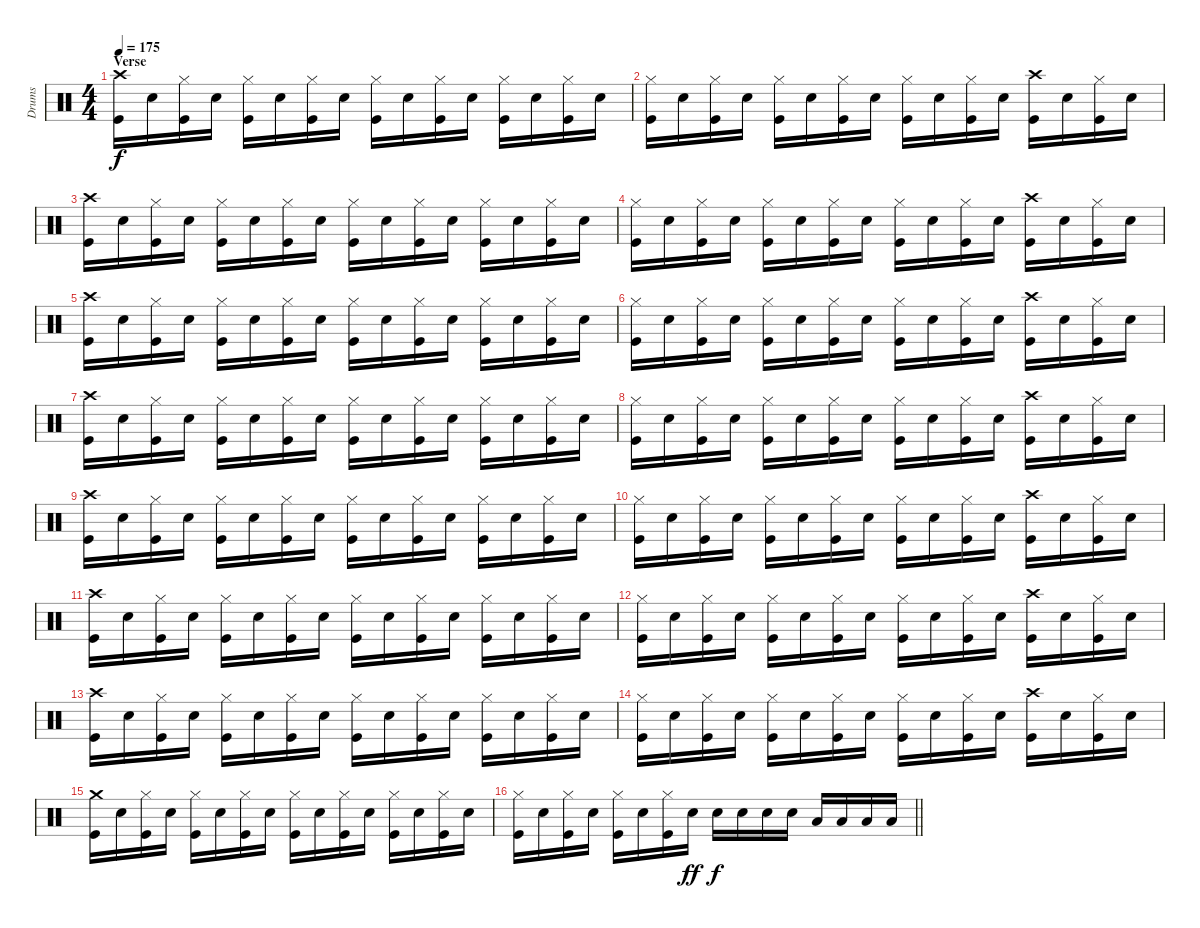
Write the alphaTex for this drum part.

\track ("Drums" "Drums") {instrument percussion}
\staff {score}
\articulation defaults
\ts (4 4)
\section ("" "Verse")
\tempo 175
\clef neutral
\ks c
("Crash high (hit)" "Kick (hit)").16{dy f} "Snare (hit) 2".16 ("Hi-Hat (closed)" "Kick (hit)").16 "Snare (hit) 2".16 ("Hi-Hat (closed)" "Kick (hit)").16 "Snare (hit) 2".16 ("Hi-Hat (closed)" "Kick (hit)").16 "Snare (hit) 2".16 ("Hi-Hat (closed)" "Kick (hit)").16 "Snare (hit) 2".16 ("Hi-Hat (closed)" "Kick (hit)").16 "Snare (hit) 2".16 ("Hi-Hat (closed)" "Kick (hit)").16 "Snare (hit) 2".16 ("Hi-Hat (closed)" "Kick (hit)").16 "Snare (hit) 2".16 |
("Hi-Hat (closed)" "Kick (hit)").16 "Snare (hit) 2".16 ("Hi-Hat (closed)" "Kick (hit)").16 "Snare (hit) 2".16 ("Hi-Hat (closed)" "Kick (hit)").16 "Snare (hit) 2".16 ("Hi-Hat (closed)" "Kick (hit)").16 "Snare (hit) 2".16 ("Hi-Hat (closed)" "Kick (hit)").16 "Snare (hit) 2".16 ("Hi-Hat (closed)" "Kick (hit)").16 "Snare (hit) 2".16 ("Crash high (hit)" "Kick (hit)").16 "Snare (hit) 2".16 ("Hi-Hat (closed)" "Kick (hit)").16 "Snare (hit) 2".16 |
("Crash high (hit)" "Kick (hit)").16 "Snare (hit) 2".16 ("Hi-Hat (closed)" "Kick (hit)").16 "Snare (hit) 2".16 ("Hi-Hat (closed)" "Kick (hit)").16 "Snare (hit) 2".16 ("Hi-Hat (closed)" "Kick (hit)").16 "Snare (hit) 2".16 ("Hi-Hat (closed)" "Kick (hit)").16 "Snare (hit) 2".16 ("Hi-Hat (closed)" "Kick (hit)").16 "Snare (hit) 2".16 ("Hi-Hat (closed)" "Kick (hit)").16 "Snare (hit) 2".16 ("Hi-Hat (closed)" "Kick (hit)").16 "Snare (hit) 2".16 |
("Hi-Hat (closed)" "Kick (hit)").16 "Snare (hit) 2".16 ("Hi-Hat (closed)" "Kick (hit)").16 "Snare (hit) 2".16 ("Hi-Hat (closed)" "Kick (hit)").16 "Snare (hit) 2".16 ("Hi-Hat (closed)" "Kick (hit)").16 "Snare (hit) 2".16 ("Hi-Hat (closed)" "Kick (hit)").16 "Snare (hit) 2".16 ("Hi-Hat (closed)" "Kick (hit)").16 "Snare (hit) 2".16 ("Crash high (hit)" "Kick (hit)").16 "Snare (hit) 2".16 ("Hi-Hat (closed)" "Kick (hit)").16 "Snare (hit) 2".16 |
("Crash high (hit)" "Kick (hit)").16 "Snare (hit) 2".16 ("Hi-Hat (closed)" "Kick (hit)").16 "Snare (hit) 2".16 ("Hi-Hat (closed)" "Kick (hit)").16 "Snare (hit) 2".16 ("Hi-Hat (closed)" "Kick (hit)").16 "Snare (hit) 2".16 ("Hi-Hat (closed)" "Kick (hit)").16 "Snare (hit) 2".16 ("Hi-Hat (closed)" "Kick (hit)").16 "Snare (hit) 2".16 ("Hi-Hat (closed)" "Kick (hit)").16 "Snare (hit) 2".16 ("Hi-Hat (closed)" "Kick (hit)").16 "Snare (hit) 2".16 |
("Hi-Hat (closed)" "Kick (hit)").16 "Snare (hit) 2".16 ("Hi-Hat (closed)" "Kick (hit)").16 "Snare (hit) 2".16 ("Hi-Hat (closed)" "Kick (hit)").16 "Snare (hit) 2".16 ("Hi-Hat (closed)" "Kick (hit)").16 "Snare (hit) 2".16 ("Hi-Hat (closed)" "Kick (hit)").16 "Snare (hit) 2".16 ("Hi-Hat (closed)" "Kick (hit)").16 "Snare (hit) 2".16 ("Crash high (hit)" "Kick (hit)").16 "Snare (hit) 2".16 ("Hi-Hat (closed)" "Kick (hit)").16 "Snare (hit) 2".16 |
("Crash high (hit)" "Kick (hit)").16 "Snare (hit) 2".16 ("Hi-Hat (closed)" "Kick (hit)").16 "Snare (hit) 2".16 ("Hi-Hat (closed)" "Kick (hit)").16 "Snare (hit) 2".16 ("Hi-Hat (closed)" "Kick (hit)").16 "Snare (hit) 2".16 ("Hi-Hat (closed)" "Kick (hit)").16 "Snare (hit) 2".16 ("Hi-Hat (closed)" "Kick (hit)").16 "Snare (hit) 2".16 ("Hi-Hat (closed)" "Kick (hit)").16 "Snare (hit) 2".16 ("Hi-Hat (closed)" "Kick (hit)").16 "Snare (hit) 2".16 |
("Hi-Hat (closed)" "Kick (hit)").16 "Snare (hit) 2".16 ("Hi-Hat (closed)" "Kick (hit)").16 "Snare (hit) 2".16 ("Hi-Hat (closed)" "Kick (hit)").16 "Snare (hit) 2".16 ("Hi-Hat (closed)" "Kick (hit)").16 "Snare (hit) 2".16 ("Hi-Hat (closed)" "Kick (hit)").16 "Snare (hit) 2".16 ("Hi-Hat (closed)" "Kick (hit)").16 "Snare (hit) 2".16 ("Crash high (hit)" "Kick (hit)").16 "Snare (hit) 2".16 ("Hi-Hat (closed)" "Kick (hit)").16 "Snare (hit) 2".16 |
("Crash high (hit)" "Kick (hit)").16 "Snare (hit) 2".16 ("Hi-Hat (closed)" "Kick (hit)").16 "Snare (hit) 2".16 ("Hi-Hat (closed)" "Kick (hit)").16 "Snare (hit) 2".16 ("Hi-Hat (closed)" "Kick (hit)").16 "Snare (hit) 2".16 ("Hi-Hat (closed)" "Kick (hit)").16 "Snare (hit) 2".16 ("Hi-Hat (closed)" "Kick (hit)").16 "Snare (hit) 2".16 ("Hi-Hat (closed)" "Kick (hit)").16 "Snare (hit) 2".16 ("Hi-Hat (closed)" "Kick (hit)").16 "Snare (hit) 2".16 |
("Hi-Hat (closed)" "Kick (hit)").16 "Snare (hit) 2".16 ("Hi-Hat (closed)" "Kick (hit)").16 "Snare (hit) 2".16 ("Hi-Hat (closed)" "Kick (hit)").16 "Snare (hit) 2".16 ("Hi-Hat (closed)" "Kick (hit)").16 "Snare (hit) 2".16 ("Hi-Hat (closed)" "Kick (hit)").16 "Snare (hit) 2".16 ("Hi-Hat (closed)" "Kick (hit)").16 "Snare (hit) 2".16 ("Crash high (hit)" "Kick (hit)").16 "Snare (hit) 2".16 ("Hi-Hat (closed)" "Kick (hit)").16 "Snare (hit) 2".16 |
("Crash high (hit)" "Kick (hit)").16 "Snare (hit) 2".16 ("Hi-Hat (closed)" "Kick (hit)").16 "Snare (hit) 2".16 ("Hi-Hat (closed)" "Kick (hit)").16 "Snare (hit) 2".16 ("Hi-Hat (closed)" "Kick (hit)").16 "Snare (hit) 2".16 ("Hi-Hat (closed)" "Kick (hit)").16 "Snare (hit) 2".16 ("Hi-Hat (closed)" "Kick (hit)").16 "Snare (hit) 2".16 ("Hi-Hat (closed)" "Kick (hit)").16 "Snare (hit) 2".16 ("Hi-Hat (closed)" "Kick (hit)").16 "Snare (hit) 2".16 |
("Hi-Hat (closed)" "Kick (hit)").16 "Snare (hit) 2".16 ("Hi-Hat (closed)" "Kick (hit)").16 "Snare (hit) 2".16 ("Hi-Hat (closed)" "Kick (hit)").16 "Snare (hit) 2".16 ("Hi-Hat (closed)" "Kick (hit)").16 "Snare (hit) 2".16 ("Hi-Hat (closed)" "Kick (hit)").16 "Snare (hit) 2".16 ("Hi-Hat (closed)" "Kick (hit)").16 "Snare (hit) 2".16 ("Crash high (hit)" "Kick (hit)").16 "Snare (hit) 2".16 ("Hi-Hat (closed)" "Kick (hit)").16 "Snare (hit) 2".16 |
("Crash high (hit)" "Kick (hit)").16 "Snare (hit) 2".16 ("Hi-Hat (closed)" "Kick (hit)").16 "Snare (hit) 2".16 ("Hi-Hat (closed)" "Kick (hit)").16 "Snare (hit) 2".16 ("Hi-Hat (closed)" "Kick (hit)").16 "Snare (hit) 2".16 ("Hi-Hat (closed)" "Kick (hit)").16 "Snare (hit) 2".16 ("Hi-Hat (closed)" "Kick (hit)").16 "Snare (hit) 2".16 ("Hi-Hat (closed)" "Kick (hit)").16 "Snare (hit) 2".16 ("Hi-Hat (closed)" "Kick (hit)").16 "Snare (hit) 2".16 |
("Hi-Hat (closed)" "Kick (hit)").16 "Snare (hit) 2".16 ("Hi-Hat (closed)" "Kick (hit)").16 "Snare (hit) 2".16 ("Hi-Hat (closed)" "Kick (hit)").16 "Snare (hit) 2".16 ("Hi-Hat (closed)" "Kick (hit)").16 "Snare (hit) 2".16 ("Hi-Hat (closed)" "Kick (hit)").16 "Snare (hit) 2".16 ("Hi-Hat (closed)" "Kick (hit)").16 "Snare (hit) 2".16 ("Crash high (hit)" "Kick (hit)").16 "Snare (hit) 2".16 ("Hi-Hat (closed)" "Kick (hit)").16 "Snare (hit) 2".16 |
("Crash medium (hit)" "Kick (hit)").16 "Snare (hit) 2".16 ("Hi-Hat (closed)" "Kick (hit)").16 "Snare (hit) 2".16 ("Hi-Hat (closed)" "Kick (hit)").16 "Snare (hit) 2".16 ("Hi-Hat (closed)" "Kick (hit)").16 "Snare (hit) 2".16 ("Hi-Hat (closed)" "Kick (hit)").16 "Snare (hit) 2".16 ("Hi-Hat (closed)" "Kick (hit)").16 "Snare (hit) 2".16 ("Hi-Hat (closed)" "Kick (hit)").16 "Snare (hit) 2".16 ("Hi-Hat (closed)" "Kick (hit)").16 "Snare (hit) 2".16 |
\barLineRight lightlight
("Hi-Hat (closed)" "Kick (hit)").16 "Snare (hit) 2".16 ("Hi-Hat (closed)" "Kick (hit)").16 "Snare (hit) 2".16 ("Hi-Hat (closed)" "Kick (hit)").16 "Snare (hit) 2".16 ("Hi-Hat (closed)" "Kick (hit)").16 "Snare (hit) 2".16{dy ff} "Snare (hit) 2".16{dy f} "Snare (hit) 2".16 "Snare (hit) 2".16 "Snare (hit) 2".16 "Low Floor Tom (hit)".16 "Low Floor Tom (hit)".16 "Low Floor Tom (hit)".16 "Low Floor Tom (hit)".16
